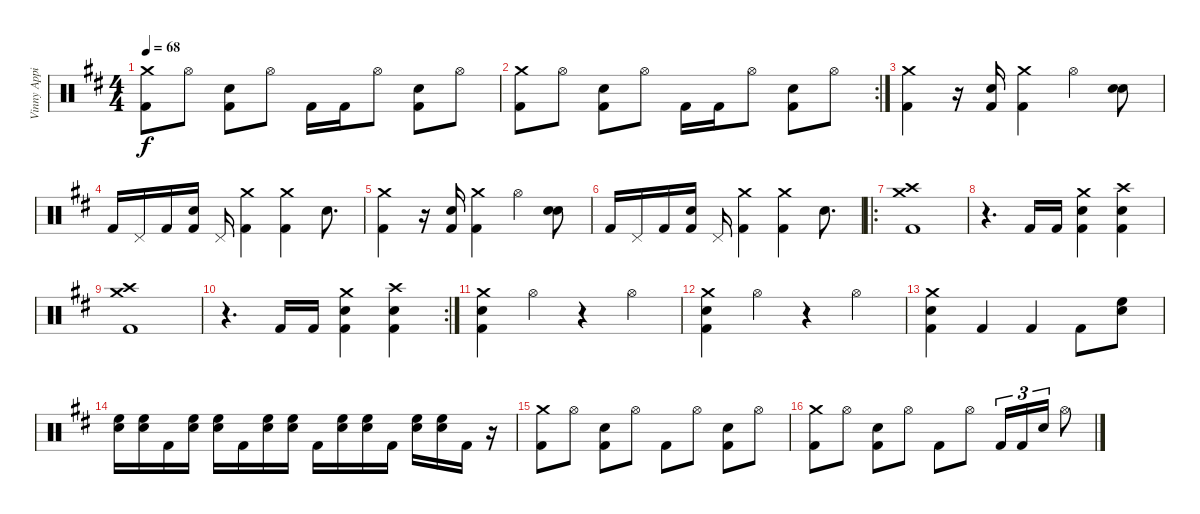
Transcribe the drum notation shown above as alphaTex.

\track ("Vinny Appice" "Vinny Appi") {instrument percussion}
\staff {score}
\articulation defaults
\ts (4 4)
\tempo 68
\clef neutral
\ks d
("Crash medium (hit)" "Kick (hit) 2").8{dy f} "Hi-Hat (open)".8 ("Snare (hit) 2" "Kick (hit) 2").8 "Hi-Hat (open)".8 "Kick (hit) 2".16 "Kick (hit) 2".16 "Hi-Hat (open)".8 ("Snare (hit) 2" "Kick (hit) 2").8 "Hi-Hat (open)".8 |
\rc 2
("Crash medium (hit)" "Kick (hit) 2").8 "Hi-Hat (open)".8 ("Snare (hit) 2" "Kick (hit) 2").8 "Hi-Hat (open)".8 "Kick (hit) 2".16 "Kick (hit) 2".16 "Hi-Hat (open)".8 ("Snare (hit) 2" "Kick (hit) 2").8 "Hi-Hat (open)".8 |
("Crash medium (hit)" "Kick (hit) 2").4 r.16 ("Snare (hit) 2" "Kick (hit) 2").16 ("Crash medium (hit)" "Kick (hit) 2").4 "Hi-Hat (open)".4 ("Electric Snare (hit)" "Snare (hit) 2").8 |
"Kick (hit) 2".16 "Pedal Hi-Hat (hit)".16 "Kick (hit) 2".16 ("Snare (hit) 2" "Kick (hit) 2").16 "Pedal Hi-Hat (hit)".16 ("Crash medium (hit)" "Kick (hit) 2").4 ("Crash medium (hit)" "Kick (hit) 2").4 "Snare (hit) 2".8{d} |
("Crash medium (hit)" "Kick (hit) 2").4 r.16 ("Snare (hit) 2" "Kick (hit) 2").16 ("Crash medium (hit)" "Kick (hit) 2").4 "Hi-Hat (open)".4 ("Electric Snare (hit)" "Snare (hit) 2").8 |
"Kick (hit) 2".16 "Pedal Hi-Hat (hit)".16 "Kick (hit) 2".16 ("Snare (hit) 2" "Kick (hit) 2").16 "Pedal Hi-Hat (hit)".16 ("Crash medium (hit)" "Kick (hit) 2").4 ("Crash medium (hit)" "Kick (hit) 2").4 "Snare (hit) 2".8{d} |
\ro
("Crash medium (hit)" "Crash high (hit)" "Kick (hit) 2").1 |
r.4{d} "Kick (hit) 2".16 "Kick (hit) 2".16 ("Crash medium (hit)" "Snare (hit) 2" "Kick (hit) 2").4 ("Crash high (hit)" "Snare (hit) 2" "Kick (hit) 2").4 |
("Crash medium (hit)" "Crash high (hit)" "Kick (hit) 2").1 |
\rc 2
r.4{d} "Kick (hit) 2".16 "Kick (hit) 2".16 ("Crash medium (hit)" "Snare (hit) 2" "Kick (hit) 2").4 ("Crash high (hit)" "Snare (hit) 2" "Kick (hit) 2").4 |
("Crash medium (hit)" "Snare (hit) 2" "Kick (hit) 2").4 "Hi-Hat (open)".4 r.4 "Hi-Hat (open)".4 |
("Crash medium (hit)" "Snare (hit) 2" "Kick (hit) 2").4 "Hi-Hat (open)".4 r.4 "Hi-Hat (open)".4 |
("Crash medium (hit)" "Snare (hit) 2" "Kick (hit) 2").4 "Kick (hit) 2".4 "Kick (hit) 2".4 "Kick (hit) 2".8 ("High Floor Tom (hit)" "Snare (hit) 2").8 |
("High Floor Tom (hit)" "Snare (hit) 2").16 ("High Floor Tom (hit)" "Snare (hit) 2").16 "Kick (hit) 2".16 ("High Floor Tom (hit)" "Snare (hit) 2").16 ("High Floor Tom (hit)" "Snare (hit) 2").16 "Kick (hit) 2".16 ("High Floor Tom (hit)" "Snare (hit) 2").16 ("High Floor Tom (hit)" "Snare (hit) 2").16 "Kick (hit) 2".16 ("High Floor Tom (hit)" "Snare (hit) 2").16 ("High Floor Tom (hit)" "Snare (hit) 2").16 "Kick (hit) 2".16 ("High Floor Tom (hit)" "Snare (hit) 2").16 ("High Floor Tom (hit)" "Snare (hit) 2").16 "Kick (hit) 2".16 r.16 |
("Crash medium (hit)" "Kick (hit) 2").8 "Hi-Hat (open)".8 ("Snare (hit) 2" "Kick (hit) 2").8 "Hi-Hat (open)".8 "Kick (hit) 2".8 "Hi-Hat (open)".8 ("Snare (hit) 2" "Kick (hit) 2").8 "Hi-Hat (open)".8 |
("Crash medium (hit)" "Kick (hit) 2").8 "Hi-Hat (open)".8 ("Snare (hit) 2" "Kick (hit) 2").8 "Hi-Hat (open)".8 "Kick (hit) 2".8 "Hi-Hat (open)".8 "Kick (hit) 2".16{tu (3 2)} "Kick (hit) 2".16{tu (3 2)} "Snare (hit) 2".16{tu (3 2)} "Hi-Hat (open)".8
